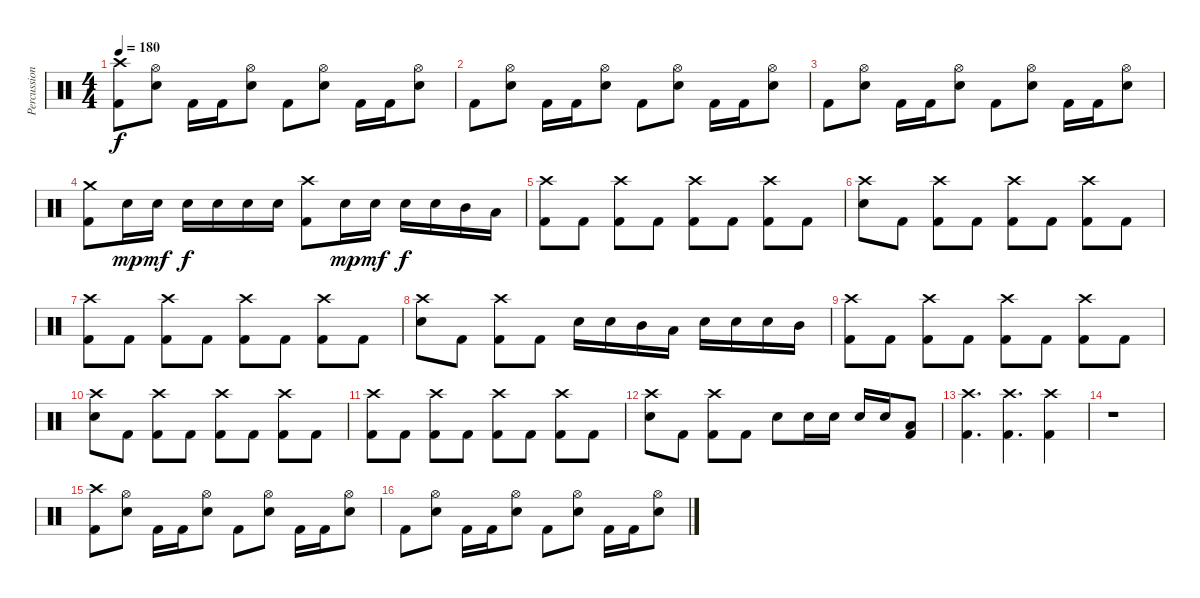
\track ("Percussion" "Percussion") {instrument percussion}
\staff {score}
\articulation defaults
\ts (4 4)
\tempo 180
\clef neutral
\ks c
("Crash high (hit)" "Kick (hit) 2").8{dy f} ("Hi-Hat (open)" "Electric Snare (hit)").8 "Kick (hit) 2".16 "Kick (hit) 2".16 ("Hi-Hat (open)" "Electric Snare (hit)").8 "Kick (hit) 2".8 ("Hi-Hat (open)" "Electric Snare (hit)").8 "Kick (hit) 2".16 "Kick (hit) 2".16 ("Hi-Hat (open)" "Electric Snare (hit)").8 |
"Kick (hit) 2".8 ("Hi-Hat (open)" "Electric Snare (hit)").8 "Kick (hit) 2".16 "Kick (hit) 2".16 ("Hi-Hat (open)" "Electric Snare (hit)").8 "Kick (hit) 2".8 ("Hi-Hat (open)" "Electric Snare (hit)").8 "Kick (hit) 2".16 "Kick (hit) 2".16 ("Hi-Hat (open)" "Electric Snare (hit)").8 |
"Kick (hit) 2".8 ("Hi-Hat (open)" "Electric Snare (hit)").8 "Kick (hit) 2".16 "Kick (hit) 2".16 ("Hi-Hat (open)" "Electric Snare (hit)").8 "Kick (hit) 2".8 ("Hi-Hat (open)" "Electric Snare (hit)").8 "Kick (hit) 2".16 "Kick (hit) 2".16 ("Hi-Hat (open)" "Electric Snare (hit)").8 |
("Crash medium (hit)" "Kick (hit) 2").8 "Electric Snare (hit)".16{dy mp} "Electric Snare (hit)".16{dy mf} "Electric Snare (hit)".16{dy f} "Electric Snare (hit)".16 "Electric Snare (hit)".16 "Electric Snare (hit)".16 ("Crash high (hit)" "Kick (hit) 2").8 "Electric Snare (hit)".16{dy mp} "Electric Snare (hit)".16{dy mf} "Electric Snare (hit)".16{dy f} "Electric Snare (hit)".16 "Mid Tom (hit)".16 "Low Tom (hit)".16 |
("Crash high (hit)" "Kick (hit) 2").8 "Kick (hit) 2".8 ("Crash high (hit)" "Kick (hit) 2").8 "Kick (hit) 2".8 ("Crash high (hit)" "Kick (hit) 2").8 "Kick (hit) 2".8 ("Crash high (hit)" "Kick (hit) 2").8 "Kick (hit) 2".8 |
("Crash high (hit)" "Electric Snare (hit)").8 "Kick (hit) 2".8 ("Crash high (hit)" "Kick (hit) 2").8 "Kick (hit) 2".8 ("Crash high (hit)" "Kick (hit) 2").8 "Kick (hit) 2".8 ("Crash high (hit)" "Kick (hit) 2").8 "Kick (hit) 2".8 |
("Crash high (hit)" "Kick (hit) 2").8 "Kick (hit) 2".8 ("Crash high (hit)" "Kick (hit) 2").8 "Kick (hit) 2".8 ("Crash high (hit)" "Kick (hit) 2").8 "Kick (hit) 2".8 ("Crash high (hit)" "Kick (hit) 2").8 "Kick (hit) 2".8 |
("Crash high (hit)" "Electric Snare (hit)").8 "Kick (hit) 2".8 ("Crash high (hit)" "Kick (hit) 2").8 "Kick (hit) 2".8 "Electric Snare (hit)".16 "Electric Snare (hit)".16 "Mid Tom (hit)".16 "Low Tom (hit)".16 "Electric Snare (hit)".16 "Electric Snare (hit)".16 "Electric Snare (hit)".16 "Mid Tom (hit)".16 |
("Crash high (hit)" "Kick (hit) 2").8 "Kick (hit) 2".8 ("Crash high (hit)" "Kick (hit) 2").8 "Kick (hit) 2".8 ("Crash high (hit)" "Kick (hit) 2").8 "Kick (hit) 2".8 ("Crash high (hit)" "Kick (hit) 2").8 "Kick (hit) 2".8 |
("Crash high (hit)" "Electric Snare (hit)").8 "Kick (hit) 2".8 ("Crash high (hit)" "Kick (hit) 2").8 "Kick (hit) 2".8 ("Crash high (hit)" "Kick (hit) 2").8 "Kick (hit) 2".8 ("Crash high (hit)" "Kick (hit) 2").8 "Kick (hit) 2".8 |
("Crash high (hit)" "Kick (hit) 2").8 "Kick (hit) 2".8 ("Crash high (hit)" "Kick (hit) 2").8 "Kick (hit) 2".8 ("Crash high (hit)" "Kick (hit) 2").8 "Kick (hit) 2".8 ("Crash high (hit)" "Kick (hit) 2").8 "Kick (hit) 2".8 |
("Crash high (hit)" "Electric Snare (hit)").8 "Kick (hit) 2".8 ("Crash high (hit)" "Kick (hit) 2").8 "Kick (hit) 2".8 "Electric Snare (hit)".8 "Electric Snare (hit)".16 "Electric Snare (hit)".16 "Electric Snare (hit)".16 "Electric Snare (hit)".16 ("Low Tom (hit)" "Kick (hit) 2").8 |
("Crash high (hit)" "Kick (hit) 2").4{d} ("Crash high (hit)" "Kick (hit) 2").4{d} ("Crash high (hit)" "Kick (hit) 2").4 |
r.1 |
("Crash high (hit)" "Kick (hit) 2").8 ("Hi-Hat (open)" "Electric Snare (hit)").8 "Kick (hit) 2".16 "Kick (hit) 2".16 ("Hi-Hat (open)" "Electric Snare (hit)").8 "Kick (hit) 2".8 ("Hi-Hat (open)" "Electric Snare (hit)").8 "Kick (hit) 2".16 "Kick (hit) 2".16 ("Hi-Hat (open)" "Electric Snare (hit)").8 |
"Kick (hit) 2".8 ("Hi-Hat (open)" "Electric Snare (hit)").8 "Kick (hit) 2".16 "Kick (hit) 2".16 ("Hi-Hat (open)" "Electric Snare (hit)").8 "Kick (hit) 2".8 ("Hi-Hat (open)" "Electric Snare (hit)").8 "Kick (hit) 2".16 "Kick (hit) 2".16 ("Hi-Hat (open)" "Electric Snare (hit)").8
